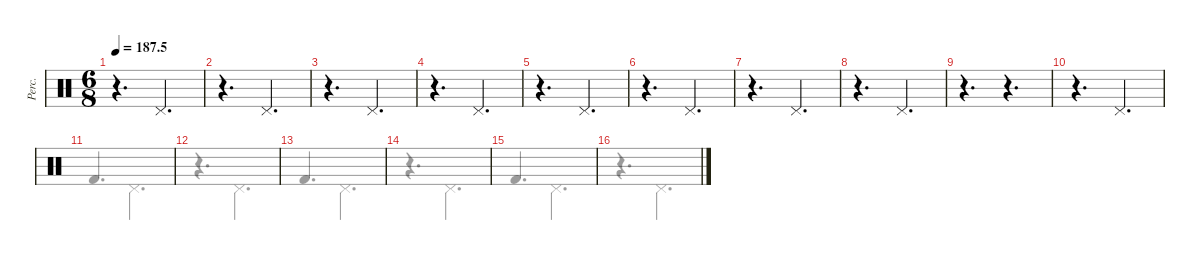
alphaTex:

\defaultSystemsLayout 4
\hideDynamics
\bracketExtendMode groupsimilarinstruments
\otherSystemsTrackNameOrientation horizontal
\track ("Percussions" "Perc.") {instrument percussion}
\staff {score}
\articulation defaults
\voice
\ts (6 8)
\tempo
187.5
\accidentals auto
\clef neutral
\ottava regular
\simile none
\ks c
r.4{d dy mf beam Down} "Pedal Hi-Hat (hit)".4{d beam Up} |
r.4{d beam Down} "Pedal Hi-Hat (hit)".4{d beam Up} |
r.4{d beam Down} "Pedal Hi-Hat (hit)".4{d beam Up} |
r.4{d beam Down} "Pedal Hi-Hat (hit)".4{d beam Up} |
r.4{d beam Down} "Pedal Hi-Hat (hit)".4{d beam Up} |
r.4{d beam Down} "Pedal Hi-Hat (hit)".4{d beam Up} |
r.4{d beam Down} "Pedal Hi-Hat (hit)".4{d beam Up} |
r.4{d beam Down} "Pedal Hi-Hat (hit)".4{d beam Up} |
r.4{d beam Down} r.4{d beam Up} |
r.4{d beam Down} "Pedal Hi-Hat (hit)".4{d beam Up} |
|
|
|
|
|
\voice
\clef neutral
\ottava regular
\simile none
\ks c
|
|
|
|
|
|
|
|
|
|
"Kick (hit) 2".4{d beam Up} "Pedal Hi-Hat (hit)".4{d beam Down} |
r.4{d beam Down} "Pedal Hi-Hat (hit)".4{d beam Down} |
"Kick (hit) 2".4{d beam Up} "Pedal Hi-Hat (hit)".4{d beam Down} |
r.4{d beam Down} "Pedal Hi-Hat (hit)".4{d beam Down} |
"Kick (hit) 2".4{d beam Up} "Pedal Hi-Hat (hit)".4{d beam Down} |
r.4{d beam Down} "Pedal Hi-Hat (hit)".4{d beam Down}
